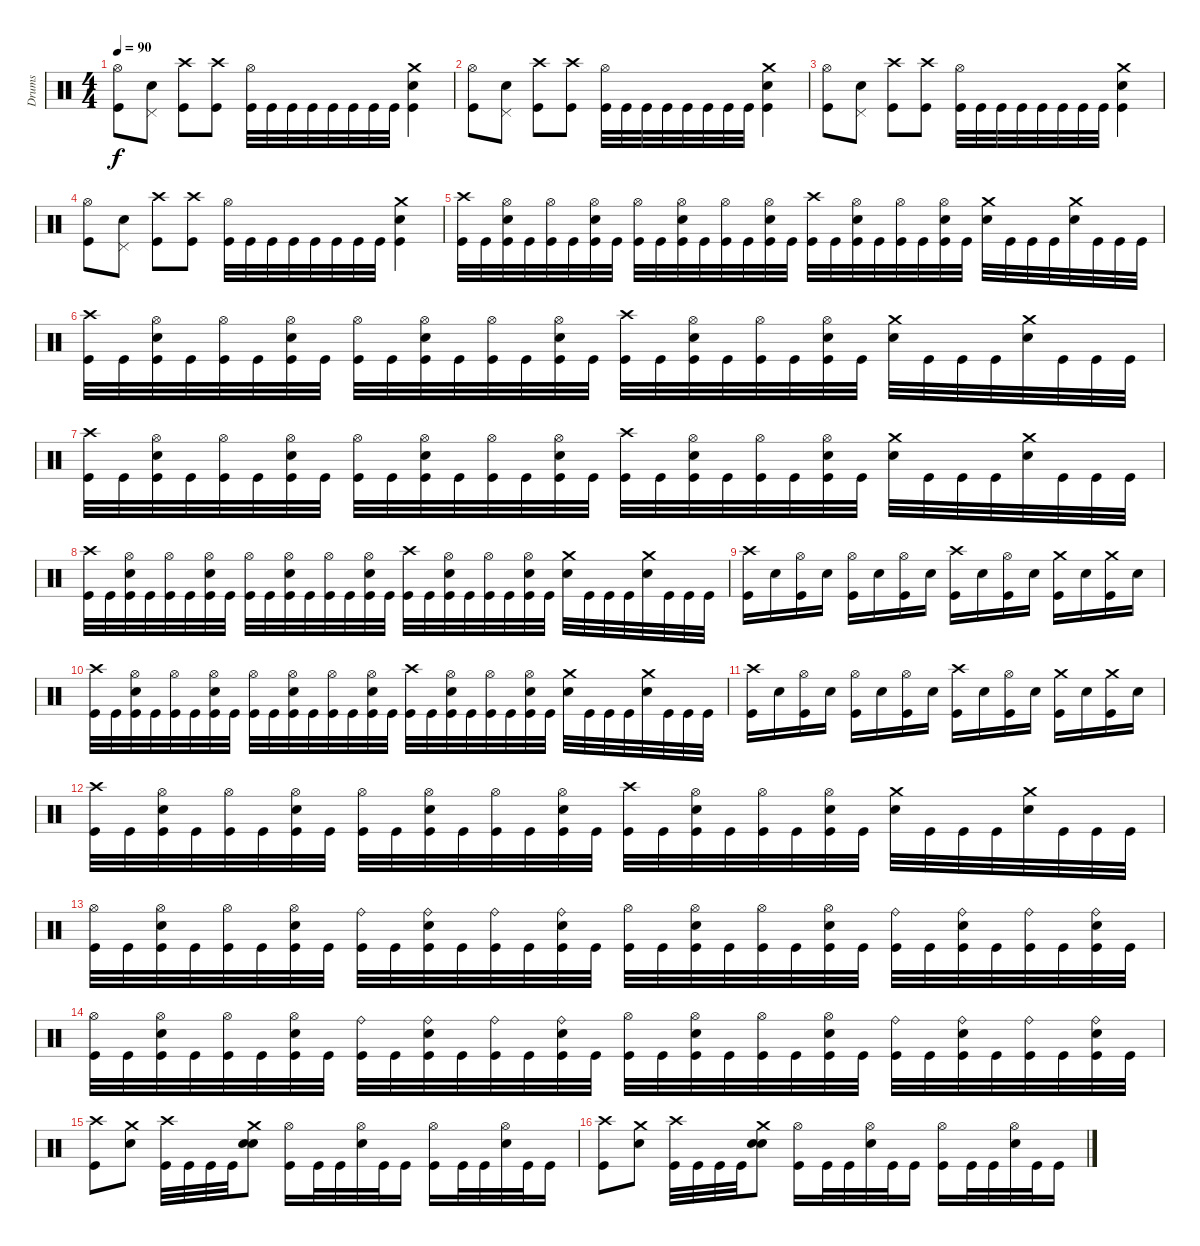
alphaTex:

\track ("Drums" "Drums") {instrument percussion}
\staff {score}
\articulation defaults
\ts (4 4)
\tempo 90
\clef neutral
\ks c
("Hi-Hat (open)" "Kick (hit)").8{dy f} ("Pedal Hi-Hat (hit)" "Snare (hit) 2").8 ("Crash high (hit)" "Kick (hit)").8 ("Crash high (hit)" "Kick (hit)").8 ("Hi-Hat (open)" "Kick (hit)").32 "Kick (hit)".32 "Kick (hit)".32 "Kick (hit)".32 "Kick (hit)".32 "Kick (hit)".32 "Kick (hit)".32 "Kick (hit)".32 ("Crash medium (hit)" "Snare (hit) 2" "Kick (hit)").4 |
("Hi-Hat (open)" "Kick (hit)").8 ("Pedal Hi-Hat (hit)" "Snare (hit) 2").8 ("Crash high (hit)" "Kick (hit)").8 ("Crash high (hit)" "Kick (hit)").8 ("Hi-Hat (open)" "Kick (hit)").32 "Kick (hit)".32 "Kick (hit)".32 "Kick (hit)".32 "Kick (hit)".32 "Kick (hit)".32 "Kick (hit)".32 "Kick (hit)".32 ("Crash medium (hit)" "Snare (hit) 2" "Kick (hit)").4 |
("Hi-Hat (open)" "Kick (hit)").8 ("Pedal Hi-Hat (hit)" "Snare (hit) 2").8 ("Crash high (hit)" "Kick (hit)").8 ("Crash high (hit)" "Kick (hit)").8 ("Hi-Hat (open)" "Kick (hit)").32 "Kick (hit)".32 "Kick (hit)".32 "Kick (hit)".32 "Kick (hit)".32 "Kick (hit)".32 "Kick (hit)".32 "Kick (hit)".32 ("Crash medium (hit)" "Snare (hit) 2" "Kick (hit)").4 |
("Hi-Hat (open)" "Kick (hit)").8 ("Pedal Hi-Hat (hit)" "Snare (hit) 2").8 ("Crash high (hit)" "Kick (hit)").8 ("Crash high (hit)" "Kick (hit)").8 ("Hi-Hat (open)" "Kick (hit)").32 "Kick (hit)".32 "Kick (hit)".32 "Kick (hit)".32 "Kick (hit)".32 "Kick (hit)".32 "Kick (hit)".32 "Kick (hit)".32 ("Crash medium (hit)" "Snare (hit) 2" "Kick (hit)").4 |
("Crash high (hit)" "Kick (hit)").32 "Kick (hit)".32 ("Hi-Hat (open)" "Snare (hit) 2" "Kick (hit)").32 "Kick (hit)".32 ("Hi-Hat (open)" "Kick (hit)").32 "Kick (hit)".32 ("Hi-Hat (open)" "Snare (hit) 2" "Kick (hit)").32 "Kick (hit)".32 ("Hi-Hat (open)" "Kick (hit)").32 "Kick (hit)".32 ("Hi-Hat (open)" "Snare (hit) 2" "Kick (hit)").32 "Kick (hit)".32 ("Hi-Hat (open)" "Kick (hit)").32 "Kick (hit)".32 ("Hi-Hat (open)" "Snare (hit) 2" "Kick (hit)").32 "Kick (hit)".32 ("Crash high (hit)" "Kick (hit)").32 "Kick (hit)".32 ("Hi-Hat (open)" "Snare (hit) 2" "Kick (hit)").32 "Kick (hit)".32 ("Hi-Hat (open)" "Kick (hit)").32 "Kick (hit)".32 ("Hi-Hat (open)" "Snare (hit) 2" "Kick (hit)").32 "Kick (hit)".32 ("Crash medium (hit)" "Snare (hit) 2").32 "Kick (hit)".32 "Kick (hit)".32 "Kick (hit)".32 ("Crash medium (hit)" "Snare (hit) 2").32 "Kick (hit)".32 "Kick (hit)".32 "Kick (hit)".32 |
("Crash high (hit)" "Kick (hit)").32 "Kick (hit)".32 ("Hi-Hat (open)" "Snare (hit) 2" "Kick (hit)").32 "Kick (hit)".32 ("Hi-Hat (open)" "Kick (hit)").32 "Kick (hit)".32 ("Hi-Hat (open)" "Snare (hit) 2" "Kick (hit)").32 "Kick (hit)".32 ("Hi-Hat (open)" "Kick (hit)").32 "Kick (hit)".32 ("Hi-Hat (open)" "Snare (hit) 2" "Kick (hit)").32 "Kick (hit)".32 ("Hi-Hat (open)" "Kick (hit)").32 "Kick (hit)".32 ("Hi-Hat (open)" "Snare (hit) 2" "Kick (hit)").32 "Kick (hit)".32 ("Crash high (hit)" "Kick (hit)").32 "Kick (hit)".32 ("Hi-Hat (open)" "Snare (hit) 2" "Kick (hit)").32 "Kick (hit)".32 ("Hi-Hat (open)" "Kick (hit)").32 "Kick (hit)".32 ("Hi-Hat (open)" "Snare (hit) 2" "Kick (hit)").32 "Kick (hit)".32 ("Crash medium (hit)" "Snare (hit) 2").32 "Kick (hit)".32 "Kick (hit)".32 "Kick (hit)".32 ("Crash medium (hit)" "Snare (hit) 2").32 "Kick (hit)".32 "Kick (hit)".32 "Kick (hit)".32 |
("Crash high (hit)" "Kick (hit)").32 "Kick (hit)".32 ("Hi-Hat (open)" "Snare (hit) 2" "Kick (hit)").32 "Kick (hit)".32 ("Hi-Hat (open)" "Kick (hit)").32 "Kick (hit)".32 ("Hi-Hat (open)" "Snare (hit) 2" "Kick (hit)").32 "Kick (hit)".32 ("Hi-Hat (open)" "Kick (hit)").32 "Kick (hit)".32 ("Hi-Hat (open)" "Snare (hit) 2" "Kick (hit)").32 "Kick (hit)".32 ("Hi-Hat (open)" "Kick (hit)").32 "Kick (hit)".32 ("Hi-Hat (open)" "Snare (hit) 2" "Kick (hit)").32 "Kick (hit)".32 ("Crash high (hit)" "Kick (hit)").32 "Kick (hit)".32 ("Hi-Hat (open)" "Snare (hit) 2" "Kick (hit)").32 "Kick (hit)".32 ("Hi-Hat (open)" "Kick (hit)").32 "Kick (hit)".32 ("Hi-Hat (open)" "Snare (hit) 2" "Kick (hit)").32 "Kick (hit)".32 ("Crash medium (hit)" "Snare (hit) 2").32 "Kick (hit)".32 "Kick (hit)".32 "Kick (hit)".32 ("Crash medium (hit)" "Snare (hit) 2").32 "Kick (hit)".32 "Kick (hit)".32 "Kick (hit)".32 |
("Crash high (hit)" "Kick (hit)").32 "Kick (hit)".32 ("Hi-Hat (open)" "Snare (hit) 2" "Kick (hit)").32 "Kick (hit)".32 ("Hi-Hat (open)" "Kick (hit)").32 "Kick (hit)".32 ("Hi-Hat (open)" "Snare (hit) 2" "Kick (hit)").32 "Kick (hit)".32 ("Hi-Hat (open)" "Kick (hit)").32 "Kick (hit)".32 ("Hi-Hat (open)" "Snare (hit) 2" "Kick (hit)").32 "Kick (hit)".32 ("Hi-Hat (open)" "Kick (hit)").32 "Kick (hit)".32 ("Hi-Hat (open)" "Snare (hit) 2" "Kick (hit)").32 "Kick (hit)".32 ("Crash high (hit)" "Kick (hit)").32 "Kick (hit)".32 ("Hi-Hat (open)" "Snare (hit) 2" "Kick (hit)").32 "Kick (hit)".32 ("Hi-Hat (open)" "Kick (hit)").32 "Kick (hit)".32 ("Hi-Hat (open)" "Snare (hit) 2" "Kick (hit)").32 "Kick (hit)".32 ("Crash medium (hit)" "Snare (hit) 2").32 "Kick (hit)".32 "Kick (hit)".32 "Kick (hit)".32 ("Crash medium (hit)" "Snare (hit) 2").32 "Kick (hit)".32 "Kick (hit)".32 "Kick (hit)".32 |
("Crash high (hit)" "Kick (hit)").16 "Snare (hit) 2".16 ("Hi-Hat (open)" "Kick (hit)").16 "Snare (hit) 2".16 ("Hi-Hat (open)" "Kick (hit)").16 "Snare (hit) 2".16 ("Hi-Hat (open)" "Kick (hit)").16 "Snare (hit) 2".16 ("Crash high (hit)" "Kick (hit)").16 "Snare (hit) 2".16 ("Hi-Hat (open)" "Kick (hit)").16 "Snare (hit) 2".16 ("Crash medium (hit)" "Kick (hit)").16 "Snare (hit) 2".16 ("Crash medium (hit)" "Kick (hit)").16 "Snare (hit) 2".16 |
("Crash high (hit)" "Kick (hit)").32 "Kick (hit)".32 ("Hi-Hat (open)" "Snare (hit) 2" "Kick (hit)").32 "Kick (hit)".32 ("Hi-Hat (open)" "Kick (hit)").32 "Kick (hit)".32 ("Hi-Hat (open)" "Snare (hit) 2" "Kick (hit)").32 "Kick (hit)".32 ("Hi-Hat (open)" "Kick (hit)").32 "Kick (hit)".32 ("Hi-Hat (open)" "Snare (hit) 2" "Kick (hit)").32 "Kick (hit)".32 ("Hi-Hat (open)" "Kick (hit)").32 "Kick (hit)".32 ("Hi-Hat (open)" "Snare (hit) 2" "Kick (hit)").32 "Kick (hit)".32 ("Crash high (hit)" "Kick (hit)").32 "Kick (hit)".32 ("Hi-Hat (open)" "Snare (hit) 2" "Kick (hit)").32 "Kick (hit)".32 ("Hi-Hat (open)" "Kick (hit)").32 "Kick (hit)".32 ("Hi-Hat (open)" "Snare (hit) 2" "Kick (hit)").32 "Kick (hit)".32 ("Crash medium (hit)" "Snare (hit) 2").32 "Kick (hit)".32 "Kick (hit)".32 "Kick (hit)".32 ("Crash medium (hit)" "Snare (hit) 2").32 "Kick (hit)".32 "Kick (hit)".32 "Kick (hit)".32 |
("Crash high (hit)" "Kick (hit)").16 "Snare (hit) 2".16 ("Hi-Hat (open)" "Kick (hit)").16 "Snare (hit) 2".16 ("Hi-Hat (open)" "Kick (hit)").16 "Snare (hit) 2".16 ("Hi-Hat (open)" "Kick (hit)").16 "Snare (hit) 2".16 ("Crash high (hit)" "Kick (hit)").16 "Snare (hit) 2".16 ("Hi-Hat (open)" "Kick (hit)").16 "Snare (hit) 2".16 ("Crash medium (hit)" "Kick (hit)").16 "Snare (hit) 2".16 ("Crash medium (hit)" "Kick (hit)").16 "Snare (hit) 2".16 |
("Crash high (hit)" "Kick (hit)").32 "Kick (hit)".32 ("Hi-Hat (open)" "Snare (hit) 2" "Kick (hit)").32 "Kick (hit)".32 ("Hi-Hat (open)" "Kick (hit)").32 "Kick (hit)".32 ("Hi-Hat (open)" "Snare (hit) 2" "Kick (hit)").32 "Kick (hit)".32 ("Hi-Hat (open)" "Kick (hit)").32 "Kick (hit)".32 ("Hi-Hat (open)" "Snare (hit) 2" "Kick (hit)").32 "Kick (hit)".32 ("Hi-Hat (open)" "Kick (hit)").32 "Kick (hit)".32 ("Hi-Hat (open)" "Snare (hit) 2" "Kick (hit)").32 "Kick (hit)".32 ("Crash high (hit)" "Kick (hit)").32 "Kick (hit)".32 ("Hi-Hat (open)" "Snare (hit) 2" "Kick (hit)").32 "Kick (hit)".32 ("Hi-Hat (open)" "Kick (hit)").32 "Kick (hit)".32 ("Hi-Hat (open)" "Snare (hit) 2" "Kick (hit)").32 "Kick (hit)".32 ("Crash medium (hit)" "Snare (hit) 2").32 "Kick (hit)".32 "Kick (hit)".32 "Kick (hit)".32 ("Crash medium (hit)" "Snare (hit) 2").32 "Kick (hit)".32 "Kick (hit)".32 "Kick (hit)".32 |
("Hi-Hat (open)" "Kick (hit)").32 "Kick (hit)".32 ("Hi-Hat (open)" "Snare (hit) 2" "Kick (hit)").32 "Kick (hit)".32 ("Hi-Hat (open)" "Kick (hit)").32 "Kick (hit)".32 ("Hi-Hat (open)" "Snare (hit) 2" "Kick (hit)").32 "Kick (hit)".32 ("Ride (bell)" "Kick (hit)").32 "Kick (hit)".32 ("Ride (bell)" "Snare (hit) 2" "Kick (hit)").32 "Kick (hit)".32 ("Ride (bell)" "Kick (hit)").32 "Kick (hit)".32 ("Ride (bell)" "Snare (hit) 2" "Kick (hit)").32 "Kick (hit)".32 ("Hi-Hat (open)" "Kick (hit)").32 "Kick (hit)".32 ("Hi-Hat (open)" "Snare (hit) 2" "Kick (hit)").32 "Kick (hit)".32 ("Hi-Hat (open)" "Kick (hit)").32 "Kick (hit)".32 ("Hi-Hat (open)" "Snare (hit) 2" "Kick (hit)").32 "Kick (hit)".32 ("Ride (bell)" "Kick (hit)").32 "Kick (hit)".32 ("Ride (bell)" "Snare (hit) 2" "Kick (hit)").32 "Kick (hit)".32 ("Ride (bell)" "Kick (hit)").32 "Kick (hit)".32 ("Ride (bell)" "Snare (hit) 2" "Kick (hit)").32 "Kick (hit)".32 |
("Hi-Hat (open)" "Kick (hit)").32 "Kick (hit)".32 ("Hi-Hat (open)" "Snare (hit) 2" "Kick (hit)").32 "Kick (hit)".32 ("Hi-Hat (open)" "Kick (hit)").32 "Kick (hit)".32 ("Hi-Hat (open)" "Snare (hit) 2" "Kick (hit)").32 "Kick (hit)".32 ("Ride (bell)" "Kick (hit)").32 "Kick (hit)".32 ("Ride (bell)" "Snare (hit) 2" "Kick (hit)").32 "Kick (hit)".32 ("Ride (bell)" "Kick (hit)").32 "Kick (hit)".32 ("Ride (bell)" "Snare (hit) 2" "Kick (hit)").32 "Kick (hit)".32 ("Hi-Hat (open)" "Kick (hit)").32 "Kick (hit)".32 ("Hi-Hat (open)" "Snare (hit) 2" "Kick (hit)").32 "Kick (hit)".32 ("Hi-Hat (open)" "Kick (hit)").32 "Kick (hit)".32 ("Hi-Hat (open)" "Snare (hit) 2" "Kick (hit)").32 "Kick (hit)".32 ("Ride (bell)" "Kick (hit)").32 "Kick (hit)".32 ("Ride (bell)" "Snare (hit) 2" "Kick (hit)").32 "Kick (hit)".32 ("Ride (bell)" "Kick (hit)").32 "Kick (hit)".32 ("Ride (bell)" "Snare (hit) 2" "Kick (hit)").32 "Kick (hit)".32 |
("Crash high (hit)" "Kick (hit)").8 ("Crash medium (hit)" "Snare (hit) 2").8 ("Crash high (hit)" "Kick (hit)").32 "Kick (hit)".32 "Kick (hit)".32 "Kick (hit)".32 ("Crash medium (hit)" "Snare (hit) 2" "Snare (hit) 2").8 ("Hi-Hat (open)" "Kick (hit)").16 "Kick (hit)".32 "Kick (hit)".32 ("Hi-Hat (open)" "Snare (hit) 2").32 "Kick (hit)".32 "Kick (hit)".16 ("Hi-Hat (open)" "Kick (hit)").16 "Kick (hit)".32 "Kick (hit)".32 ("Hi-Hat (open)" "Snare (hit) 2").32 "Kick (hit)".32 "Kick (hit)".16 |
("Crash high (hit)" "Kick (hit)").8 ("Crash medium (hit)" "Snare (hit) 2").8 ("Crash high (hit)" "Kick (hit)").32 "Kick (hit)".32 "Kick (hit)".32 "Kick (hit)".32 ("Crash medium (hit)" "Snare (hit) 2" "Snare (hit) 2").8 ("Hi-Hat (open)" "Kick (hit)").16 "Kick (hit)".32 "Kick (hit)".32 ("Hi-Hat (open)" "Snare (hit) 2").32 "Kick (hit)".32 "Kick (hit)".16 ("Hi-Hat (open)" "Kick (hit)").16 "Kick (hit)".32 "Kick (hit)".32 ("Hi-Hat (open)" "Snare (hit) 2").32 "Kick (hit)".32 "Kick (hit)".16
